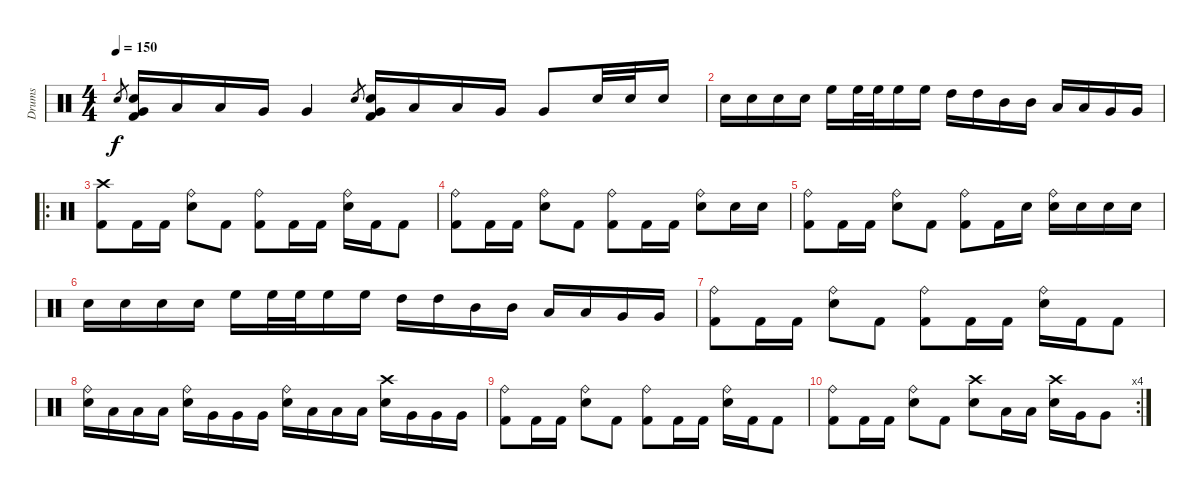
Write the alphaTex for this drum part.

\track ("Drums" "Drums") {instrument percussion}
\staff {score}
\articulation defaults
\ts (4 4)
\tempo 150
\clef neutral
\ks c "Electric Snare (hit)".8{gr dy f}
("Very Low Tom (hit)" "Electric Snare (hit)" "Kick (hit) 2").16 "Low Tom (hit)".16 "Low Tom (hit)".16 "Very Low Tom (hit)".16 "Very Low Tom (hit)".4 "Electric Snare (hit)".8{gr} ("Very Low Tom (hit)" "Electric Snare (hit)" "Kick (hit) 2").16 "Low Tom (hit)".16 "Low Tom (hit)".16 "Very Low Tom (hit)".16 "Very Low Tom (hit)".8 "Electric Snare (hit)".32 "Electric Snare (hit)".32 "Electric Snare (hit)".16 |
"Electric Snare (hit)".16 "Electric Snare (hit)".16 "Electric Snare (hit)".16 "Electric Snare (hit)".16 "High Floor Tom (hit)".16 "High Floor Tom (hit)".32 "High Floor Tom (hit)".32 "High Floor Tom (hit)".16 "High Floor Tom (hit)".16 "High Tom (hit)".16 "High Tom (hit)".16 "Mid Tom (hit)".16 "Mid Tom (hit)".16 "Low Tom (hit)".16 "Low Tom (hit)".16 "Very Low Tom (hit)".16 "Very Low Tom (hit)".16 |
\ro
("Crash high (hit)" "Kick (hit) 2").8 "Kick (hit) 2".16 "Kick (hit) 2".16 ("Ride (bell)" "Electric Snare (hit)").8 "Kick (hit) 2".8 ("Ride (bell)" "Kick (hit) 2").8 "Kick (hit) 2".16 "Kick (hit) 2".16 ("Ride (bell)" "Electric Snare (hit)").16 "Kick (hit) 2".16 "Kick (hit) 2".8 |
("Ride (bell)" "Kick (hit) 2").8 "Kick (hit) 2".16 "Kick (hit) 2".16 ("Ride (bell)" "Electric Snare (hit)").8 "Kick (hit) 2".8 ("Ride (bell)" "Kick (hit) 2").8 "Kick (hit) 2".16 "Kick (hit) 2".16 ("Ride (bell)" "Electric Snare (hit)").8 "Electric Snare (hit)".16 "Electric Snare (hit)".16 |
("Ride (bell)" "Kick (hit) 2").8 "Kick (hit) 2".16 "Kick (hit) 2".16 ("Ride (bell)" "Electric Snare (hit)").8 "Kick (hit) 2".8 ("Ride (bell)" "Kick (hit) 2").8 "Kick (hit) 2".16 "Electric Snare (hit)".16 ("Ride (bell)" "Electric Snare (hit)").16 "Electric Snare (hit)".16 "Electric Snare (hit)".16 "Electric Snare (hit)".16 |
"Electric Snare (hit)".16 "Electric Snare (hit)".16 "Electric Snare (hit)".16 "Electric Snare (hit)".16 "High Floor Tom (hit)".16 "High Floor Tom (hit)".32 "High Floor Tom (hit)".32 "High Floor Tom (hit)".16 "High Floor Tom (hit)".16 "High Tom (hit)".16 "High Tom (hit)".16 "Mid Tom (hit)".16 "Mid Tom (hit)".16 "Low Tom (hit)".16 "Low Tom (hit)".16 "Very Low Tom (hit)".16 "Very Low Tom (hit)".16 |
("Ride (bell)" "Kick (hit) 2").8 "Kick (hit) 2".16 "Kick (hit) 2".16 ("Ride (bell)" "Electric Snare (hit)").8 "Kick (hit) 2".8 ("Ride (bell)" "Kick (hit) 2").8 "Kick (hit) 2".16 "Kick (hit) 2".16 ("Ride (bell)" "Electric Snare (hit)").16 "Kick (hit) 2".16 "Kick (hit) 2".8 |
("Ride (bell)" "Electric Snare (hit)").16 "Low Tom (hit)".16 "Low Tom (hit)".16 "Low Tom (hit)".16 ("Ride (bell)" "Electric Snare (hit)").16 "Very Low Tom (hit)".16 "Very Low Tom (hit)".16 "Very Low Tom (hit)".16 ("Ride (bell)" "Electric Snare (hit)").16 "Low Tom (hit)".16 "Low Tom (hit)".16 "Low Tom (hit)".16 ("Crash high (hit)" "Electric Snare (hit)").16 "Very Low Tom (hit)".16 "Very Low Tom (hit)".16 "Very Low Tom (hit)".16 |
("Ride (bell)" "Kick (hit) 2").8 "Kick (hit) 2".16 "Kick (hit) 2".16 ("Ride (bell)" "Electric Snare (hit)").8 "Kick (hit) 2".8 ("Ride (bell)" "Kick (hit) 2").8 "Kick (hit) 2".16 "Kick (hit) 2".16 ("Ride (bell)" "Electric Snare (hit)").16 "Kick (hit) 2".16 "Kick (hit) 2".8 |
\rc 4
("Ride (bell)" "Kick (hit) 2").8 "Kick (hit) 2".16 "Kick (hit) 2".16 ("Ride (bell)" "Electric Snare (hit)").8 "Kick (hit) 2".8 ("Crash high (hit)" "Electric Snare (hit)").8 "Low Tom (hit)".16 "Low Tom (hit)".16 ("Crash high (hit)" "Electric Snare (hit)").16 "Very Low Tom (hit)".16 "Very Low Tom (hit)".8
